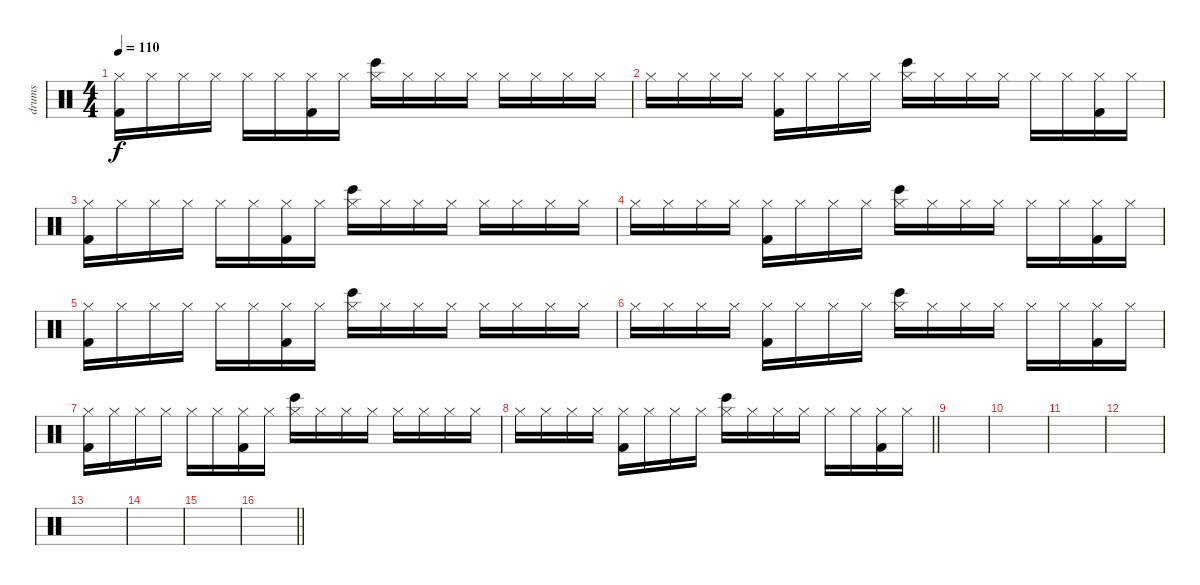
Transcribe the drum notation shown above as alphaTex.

\track ("drums" "drums") {instrument percussion}
\staff {score}
\articulation defaults
\ts (4 4)
\tempo 110
\clef neutral
\ks c
("Hi-Hat (closed)" "Kick (hit) 2").16{dy f} "Hi-Hat (closed)".16 "Hi-Hat (closed)".16 "Hi-Hat (closed)".16 "Hi-Hat (closed)".16 "Hi-Hat (closed)".16 ("Hi-Hat (closed)" "Kick (hit) 2").16 "Hi-Hat (closed)".16 ("Hi-Hat (closed)" "Bongo High (hit)").16 "Hi-Hat (closed)".16 "Hi-Hat (closed)".16 "Hi-Hat (closed)".16 "Hi-Hat (closed)".16 "Hi-Hat (closed)".16 "Hi-Hat (closed)".16 "Hi-Hat (closed)".16 |
"Hi-Hat (closed)".16 "Hi-Hat (closed)".16 "Hi-Hat (closed)".16 "Hi-Hat (closed)".16 ("Hi-Hat (closed)" "Kick (hit) 2").16 "Hi-Hat (closed)".16 "Hi-Hat (closed)".16 "Hi-Hat (closed)".16 ("Hi-Hat (closed)" "Bongo High (hit)").16 "Hi-Hat (closed)".16 "Hi-Hat (closed)".16 "Hi-Hat (closed)".16 "Hi-Hat (closed)".16 "Hi-Hat (closed)".16 ("Hi-Hat (closed)" "Kick (hit) 2").16 "Hi-Hat (closed)".16 |
("Hi-Hat (closed)" "Kick (hit) 2").16 "Hi-Hat (closed)".16 "Hi-Hat (closed)".16 "Hi-Hat (closed)".16 "Hi-Hat (closed)".16 "Hi-Hat (closed)".16 ("Hi-Hat (closed)" "Kick (hit) 2").16 "Hi-Hat (closed)".16 ("Hi-Hat (closed)" "Bongo High (hit)").16 "Hi-Hat (closed)".16 "Hi-Hat (closed)".16 "Hi-Hat (closed)".16 "Hi-Hat (closed)".16 "Hi-Hat (closed)".16 "Hi-Hat (closed)".16 "Hi-Hat (closed)".16 |
"Hi-Hat (closed)".16 "Hi-Hat (closed)".16 "Hi-Hat (closed)".16 "Hi-Hat (closed)".16 ("Hi-Hat (closed)" "Kick (hit) 2").16 "Hi-Hat (closed)".16 "Hi-Hat (closed)".16 "Hi-Hat (closed)".16 ("Hi-Hat (closed)" "Bongo High (hit)").16 "Hi-Hat (closed)".16 "Hi-Hat (closed)".16 "Hi-Hat (closed)".16 "Hi-Hat (closed)".16 "Hi-Hat (closed)".16 ("Hi-Hat (closed)" "Kick (hit) 2").16 "Hi-Hat (closed)".16 |
("Hi-Hat (closed)" "Kick (hit) 2").16 "Hi-Hat (closed)".16 "Hi-Hat (closed)".16 "Hi-Hat (closed)".16 "Hi-Hat (closed)".16 "Hi-Hat (closed)".16 ("Hi-Hat (closed)" "Kick (hit) 2").16 "Hi-Hat (closed)".16 ("Hi-Hat (closed)" "Bongo High (hit)").16 "Hi-Hat (closed)".16 "Hi-Hat (closed)".16 "Hi-Hat (closed)".16 "Hi-Hat (closed)".16 "Hi-Hat (closed)".16 "Hi-Hat (closed)".16 "Hi-Hat (closed)".16 |
"Hi-Hat (closed)".16 "Hi-Hat (closed)".16 "Hi-Hat (closed)".16 "Hi-Hat (closed)".16 ("Hi-Hat (closed)" "Kick (hit) 2").16 "Hi-Hat (closed)".16 "Hi-Hat (closed)".16 "Hi-Hat (closed)".16 ("Hi-Hat (closed)" "Bongo High (hit)").16 "Hi-Hat (closed)".16 "Hi-Hat (closed)".16 "Hi-Hat (closed)".16 "Hi-Hat (closed)".16 "Hi-Hat (closed)".16 ("Hi-Hat (closed)" "Kick (hit) 2").16 "Hi-Hat (closed)".16 |
("Hi-Hat (closed)" "Kick (hit) 2").16 "Hi-Hat (closed)".16 "Hi-Hat (closed)".16 "Hi-Hat (closed)".16 "Hi-Hat (closed)".16 "Hi-Hat (closed)".16 ("Hi-Hat (closed)" "Kick (hit) 2").16 "Hi-Hat (closed)".16 ("Hi-Hat (closed)" "Bongo High (hit)").16 "Hi-Hat (closed)".16 "Hi-Hat (closed)".16 "Hi-Hat (closed)".16 "Hi-Hat (closed)".16 "Hi-Hat (closed)".16 "Hi-Hat (closed)".16 "Hi-Hat (closed)".16 |
\barLineRight lightlight "Hi-Hat (closed)".16 "Hi-Hat (closed)".16 "Hi-Hat (closed)".16 "Hi-Hat (closed)".16
("Hi-Hat (closed)" "Kick (hit) 2").16 "Hi-Hat (closed)".16 "Hi-Hat (closed)".16 "Hi-Hat (closed)".16 ("Hi-Hat (closed)" "Bongo High (hit)").16 "Hi-Hat (closed)".16 "Hi-Hat (closed)".16 "Hi-Hat (closed)".16 "Hi-Hat (closed)".16 "Hi-Hat (closed)".16 ("Hi-Hat (closed)" "Kick (hit) 2").16 "Hi-Hat (closed)".16 |
\section ("" "")
|
|
|
|
|
|
|
\barLineRight lightlight
